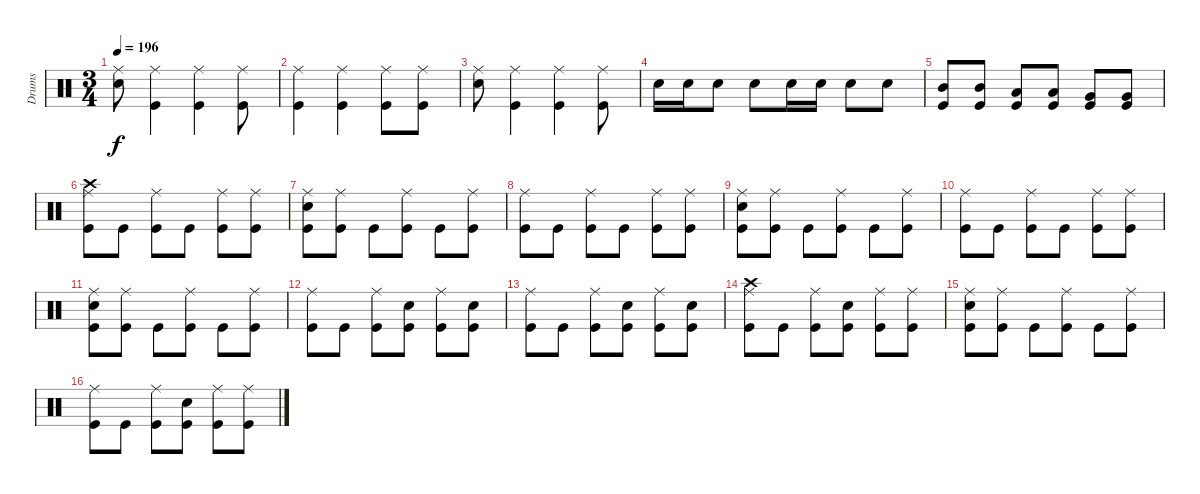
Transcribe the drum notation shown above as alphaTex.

\track ("Drums" "Drums") {instrument percussion}
\staff {score}
\articulation defaults
\ts (3 4)
\tempo 196
\clef neutral
\ks c
("Ride (middle)" "Electric Snare (hit)").8{dy f} ("Ride (middle)" "Kick (hit)").4 ("Ride (middle)" "Kick (hit)").4 ("Ride (middle)" "Kick (hit)").8 |
("Ride (middle)" "Kick (hit)").4 ("Ride (middle)" "Kick (hit)").4 ("Ride (middle)" "Kick (hit)").8 ("Ride (middle)" "Kick (hit)").8 |
("Ride (middle)" "Electric Snare (hit)").8 ("Ride (middle)" "Kick (hit)").4 ("Ride (middle)" "Kick (hit)").4 ("Ride (middle)" "Kick (hit)").8 |
"Electric Snare (hit)".16 "Electric Snare (hit)".16 "Electric Snare (hit)".8 "Electric Snare (hit)".8 "Electric Snare (hit)".16 "Electric Snare (hit)".16 "Electric Snare (hit)".8 "Electric Snare (hit)".8 |
("Mid Tom (hit)" "Kick (hit)").8 ("Mid Tom (hit)" "Kick (hit)").8 ("Low Tom (hit)" "Kick (hit)").8 ("Low Tom (hit)" "Kick (hit)").8 ("Very Low Tom (hit)" "Kick (hit)").8 ("Very Low Tom (hit)" "Kick (hit)").8 |
("Crash high (hit)" "Ride (middle)" "Kick (hit)").8 "Kick (hit)".8 ("Ride (middle)" "Kick (hit)").8 "Kick (hit)".8 ("Ride (middle)" "Kick (hit)").8 ("Ride (middle)" "Kick (hit)").8 |
("Ride (middle)" "Electric Snare (hit)" "Kick (hit)").8 ("Ride (middle)" "Kick (hit)").8 "Kick (hit)".8 ("Ride (middle)" "Kick (hit)").8 "Kick (hit)".8 ("Ride (middle)" "Kick (hit)").8 |
("Ride (middle)" "Kick (hit)").8 "Kick (hit)".8 ("Ride (middle)" "Kick (hit)").8 "Kick (hit)".8 ("Ride (middle)" "Kick (hit)").8 ("Ride (middle)" "Kick (hit)").8 |
("Ride (middle)" "Electric Snare (hit)" "Kick (hit)").8 ("Ride (middle)" "Kick (hit)").8 "Kick (hit)".8 ("Ride (middle)" "Kick (hit)").8 "Kick (hit)".8 ("Ride (middle)" "Kick (hit)").8 |
("Ride (middle)" "Kick (hit)").8 "Kick (hit)".8 ("Ride (middle)" "Kick (hit)").8 "Kick (hit)".8 ("Ride (middle)" "Kick (hit)").8 ("Ride (middle)" "Kick (hit)").8 |
("Ride (middle)" "Electric Snare (hit)" "Kick (hit)").8 ("Ride (middle)" "Kick (hit)").8 "Kick (hit)".8 ("Ride (middle)" "Kick (hit)").8 "Kick (hit)".8 ("Ride (middle)" "Kick (hit)").8 |
("Ride (middle)" "Kick (hit)").8 "Kick (hit)".8 ("Ride (middle)" "Kick (hit)").8 ("Electric Snare (hit)" "Kick (hit)").8 ("Ride (middle)" "Kick (hit)").8 ("Electric Snare (hit)" "Kick (hit)").8 |
("Ride (middle)" "Kick (hit)").8 "Kick (hit)".8 ("Ride (middle)" "Kick (hit)").8 ("Electric Snare (hit)" "Kick (hit)").8 ("Ride (middle)" "Kick (hit)").8 ("Electric Snare (hit)" "Kick (hit)").8 |
("Crash high (hit)" "Ride (middle)" "Kick (hit)").8 "Kick (hit)".8 ("Ride (middle)" "Kick (hit)").8 ("Electric Snare (hit)" "Kick (hit)").8 ("Ride (middle)" "Kick (hit)").8 ("Ride (middle)" "Kick (hit)").8 |
("Ride (middle)" "Electric Snare (hit)" "Kick (hit)").8 ("Ride (middle)" "Kick (hit)").8 "Kick (hit)".8 ("Ride (middle)" "Kick (hit)").8 "Kick (hit)".8 ("Ride (middle)" "Kick (hit)").8 |
("Ride (middle)" "Kick (hit)").8 "Kick (hit)".8 ("Ride (middle)" "Kick (hit)").8 ("Electric Snare (hit)" "Kick (hit)").8 ("Ride (middle)" "Kick (hit)").8 ("Ride (middle)" "Kick (hit)").8
